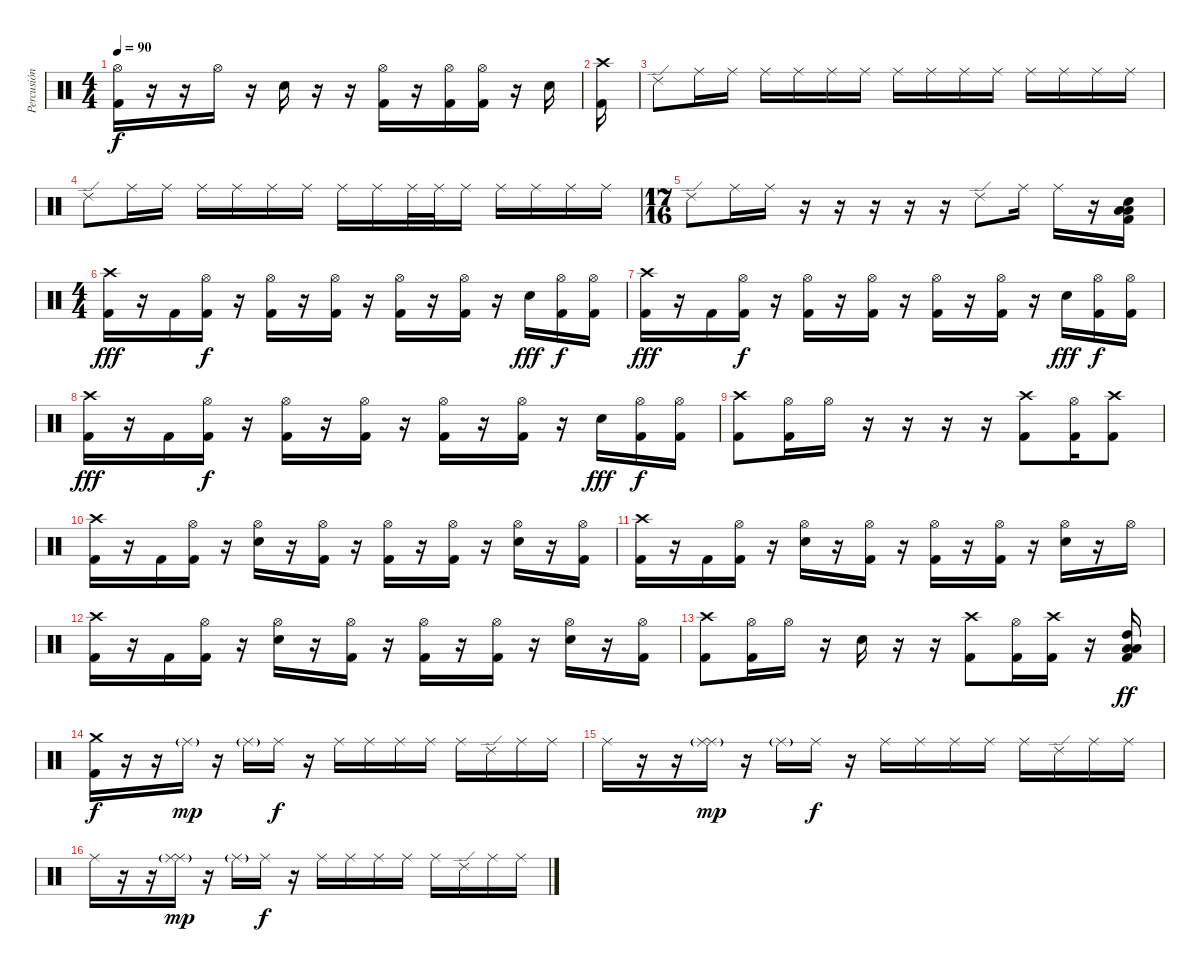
\track ("Percusión" "Percusión") {instrument percussion}
\staff {score}
\articulation defaults
\ts (4 4)
\tempo 90
\clef neutral
\ks c
("Hi-Hat (open)" "Kick (hit) 2").16{dy f} r.16 r.16 "Hi-Hat (open)".16 r.16 "Electric Snare (hit)".16 r.16 r.16 ("Hi-Hat (open)" "Kick (hit) 2").16 r.16 ("Hi-Hat (open)" "Kick (hit) 2").16 ("Hi-Hat (open)" "Kick (hit) 2").16 r.16 "Electric Snare (hit)".16 |
("Crash high (hit)" "Kick (hit) 2").16 |
"Ride (edge) 2".8 "Ride (middle)".16 "Ride (middle)".16 "Ride (middle)"{x}.16 "Ride (middle)".16 "Ride (middle)"{x}.16 "Ride (middle)".16 "Ride (middle)".16 "Ride (middle)".16 "Ride (middle)".16 "Ride (middle)".16 "Ride (middle)"{x}.16 "Ride (middle)".16 "Ride (middle)".16 "Ride (middle)".16 |
"Ride (edge) 2".8 "Ride (middle)".16 "Ride (middle)".16 "Ride (middle)"{x}.16 "Ride (middle)".16 "Ride (middle)".16 "Ride (middle)".16 "Ride (middle)".16 "Ride (middle)".16 "Ride (middle)".32 "Ride (middle)".32 "Ride (middle)".16 "Ride (middle)".16 "Ride (middle)".16 "Ride (middle)".16 "Ride (middle)".16 |
\ts (17 16)
"Ride (edge) 2".8 "Ride (middle)".16 "Ride (middle)".16 r.16 r.16 r.16 r.16 r.16 "Ride (edge) 2".8 "Ride (middle)".16 "Ride (middle)".16 r.16 ("Low Tom (hit)" "Low Tom (hit)" "Electric Snare (hit)" "Kick (hit) 2").16 |
\ts (4 4)
("Crash high (hit)" "Kick (hit) 2").16{dy fff} r.16 "Kick (hit) 2".16 ("Hi-Hat (open)" "Kick (hit) 2").16{dy f} r.16 ("Hi-Hat (open)" "Kick (hit) 2").16 r.16 ("Hi-Hat (open)" "Kick (hit) 2").16 r.16 ("Hi-Hat (open)" "Kick (hit) 2").16 r.16 ("Hi-Hat (open)" "Kick (hit) 2").16 r.16 "Electric Snare (hit)".16{dy fff} ("Hi-Hat (open)" "Kick (hit) 2").16{dy f} ("Hi-Hat (open)" "Kick (hit) 2").16 |
("Crash high (hit)" "Kick (hit) 2").16{dy fff} r.16 "Kick (hit) 2".16 ("Hi-Hat (open)" "Kick (hit) 2").16{dy f} r.16 ("Hi-Hat (open)" "Kick (hit) 2").16 r.16 ("Hi-Hat (open)" "Kick (hit) 2").16 r.16 ("Hi-Hat (open)" "Kick (hit) 2").16 r.16 ("Hi-Hat (open)" "Kick (hit) 2").16 r.16 "Electric Snare (hit)".16{dy fff} ("Hi-Hat (open)" "Kick (hit) 2").16{dy f} ("Hi-Hat (open)" "Kick (hit) 2").16 |
("Crash high (hit)" "Kick (hit) 2").16{dy fff} r.16 "Kick (hit) 2".16 ("Hi-Hat (open)" "Kick (hit) 2").16{dy f} r.16 ("Hi-Hat (open)" "Kick (hit) 2").16 r.16 ("Hi-Hat (open)" "Kick (hit) 2").16 r.16 ("Hi-Hat (open)" "Kick (hit) 2").16 r.16 ("Hi-Hat (open)" "Kick (hit) 2").16 r.16 "Electric Snare (hit)".16{dy fff} ("Hi-Hat (open)" "Kick (hit) 2").16{dy f} ("Hi-Hat (open)" "Kick (hit) 2").16 |
("Crash high (hit)" "Kick (hit) 2").8 ("Hi-Hat (open)" "Kick (hit) 2").16 "Hi-Hat (open)".16 r.16 r.16 r.16 r.16 ("Crash high (hit)" "Kick (hit) 2").8 ("Hi-Hat (open)" "Kick (hit) 2").16 ("Crash high (hit)" "Kick (hit) 2").8 |
("Crash high (hit)" "Kick (hit) 2").16 r.16 "Kick (hit) 2".16 ("Hi-Hat (open)" "Kick (hit) 2").16 r.16 ("Hi-Hat (open)" "Electric Snare (hit)").16 r.16 ("Hi-Hat (open)" "Kick (hit) 2").16 r.16 ("Hi-Hat (open)" "Kick (hit) 2").16 r.16 ("Hi-Hat (open)" "Kick (hit) 2").16 r.16 ("Hi-Hat (open)" "Electric Snare (hit)").16 r.16 ("Hi-Hat (open)" "Kick (hit) 2").16 |
("Crash high (hit)" "Kick (hit) 2").16 r.16 "Kick (hit) 2".16 ("Hi-Hat (open)" "Kick (hit) 2").16 r.16 ("Hi-Hat (open)" "Electric Snare (hit)").16 r.16 ("Hi-Hat (open)" "Kick (hit) 2").16 r.16 ("Hi-Hat (open)" "Kick (hit) 2").16 r.16 ("Hi-Hat (open)" "Kick (hit) 2").16 r.16 ("Hi-Hat (open)" "Electric Snare (hit)").16 r.16 "Hi-Hat (open)".16 |
("Crash high (hit)" "Kick (hit) 2").16 r.16 "Kick (hit) 2".16 ("Hi-Hat (open)" "Kick (hit) 2").16 r.16 ("Hi-Hat (open)" "Electric Snare (hit)").16 r.16 ("Hi-Hat (open)" "Kick (hit) 2").16 r.16 ("Hi-Hat (open)" "Kick (hit) 2").16 r.16 ("Hi-Hat (open)" "Kick (hit) 2").16 r.16 ("Hi-Hat (open)" "Electric Snare (hit)").16 r.16 ("Hi-Hat (open)" "Kick (hit) 2").16 |
("Crash high (hit)" "Kick (hit) 2").8 ("Hi-Hat (open)" "Kick (hit) 2").16 "Hi-Hat (open)".16 r.16 "Electric Snare (hit)".16 r.16 r.16 ("Crash high (hit)" "Kick (hit) 2").8 ("Hi-Hat (open)" "Kick (hit) 2").16 ("Crash high (hit)" "Kick (hit) 2").16 r.16 ("High Tom (hit)" "Low Tom (hit)" "Low Tom (hit)" "Kick (hit) 2").16{dy ff} |
("Crash medium (hit)" "Kick (hit) 2").16{dy f} r.16 r.16 "Ride (middle)"{g}.16{dy mp} r.16 "Ride (middle)"{g}.16 "Ride (middle)"{x}.16{dy f} r.16 "Ride (middle)".16 "Ride (middle)".16 "Ride (middle)"{x}.16 "Ride (middle)".16 "Ride (middle)".16 "Ride (edge) 2".16 "Ride (middle)".16 "Ride (middle)".16 |
"Ride (middle)".16 r.16 r.16 ("Ride (middle)"{g} "Ride (middle)").16{dy mp} r.16 "Ride (middle)"{g}.16 "Ride (middle)"{x}.16{dy f} r.16 "Ride (middle)".16 "Ride (middle)".16 "Ride (middle)"{x}.16 "Ride (middle)".16 "Ride (middle)".16 "Ride (edge) 2".16 "Ride (middle)".16 "Ride (middle)".16 |
"Ride (middle)".16 r.16 r.16 ("Ride (middle)"{g} "Ride (middle)").16{dy mp} r.16 "Ride (middle)"{g}.16 "Ride (middle)"{x}.16{dy f} r.16 "Ride (middle)".16 "Ride (middle)".16 "Ride (middle)"{x}.16 "Ride (middle)".16 "Ride (middle)".16 "Ride (edge) 2".16 "Ride (middle)".16 "Ride (middle)".16
